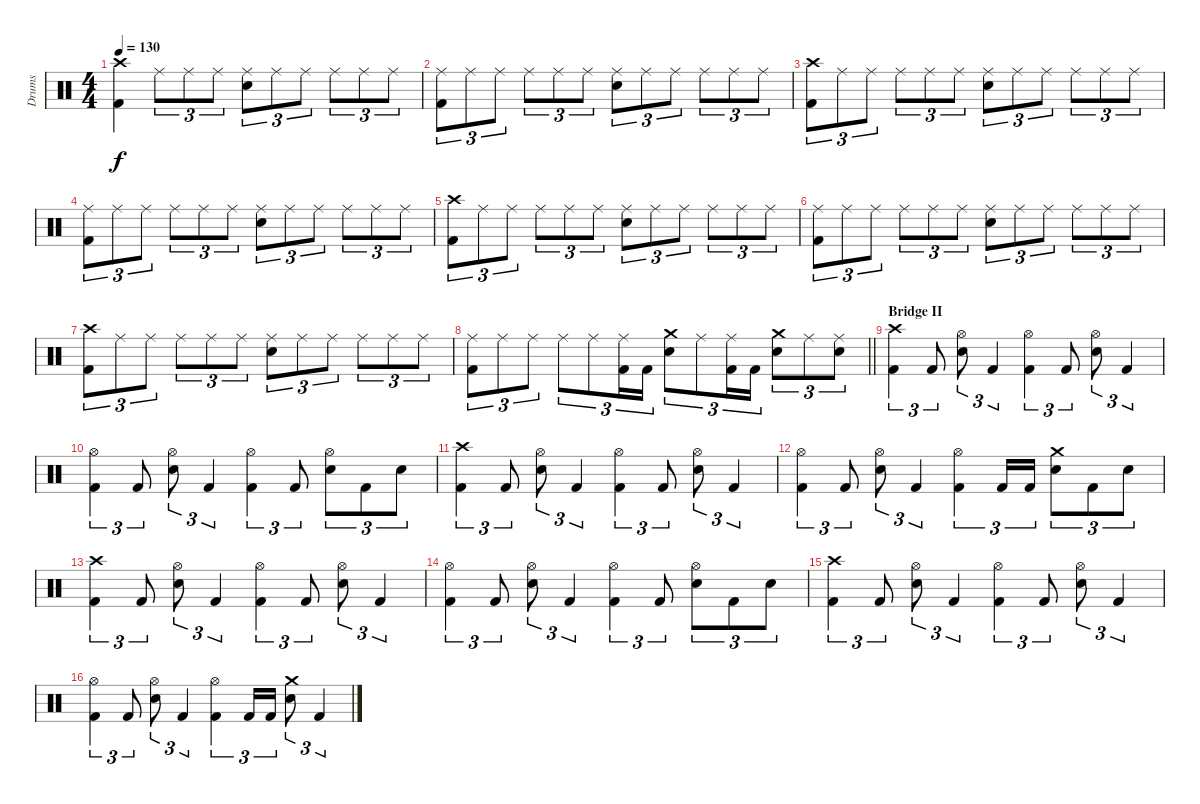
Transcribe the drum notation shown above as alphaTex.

\track ("Drums" "Drums") {instrument percussion}
\staff {score}
\articulation defaults
\ts (4 4)
\tempo 130
\clef neutral
\ks c
("Crash high (hit)" "Kick (hit) 2").4{dy f} "Ride (middle)".8{tu (3 2)} "Ride (middle)".8{tu (3 2)} "Ride (middle)".8{tu (3 2)} ("Ride (middle)" "Electric Snare (hit)").8{tu (3 2)} "Ride (middle)".8{tu (3 2)} "Ride (middle)".8{tu (3 2)} "Ride (middle)".8{tu (3 2)} "Ride (middle)".8{tu (3 2)} "Ride (middle)".8{tu (3 2)} |
("Ride (middle)" "Kick (hit) 2").8{tu (3 2)} "Ride (middle)".8{tu (3 2)} "Ride (middle)".8{tu (3 2)} "Ride (middle)".8{tu (3 2)} "Ride (middle)".8{tu (3 2)} "Ride (middle)".8{tu (3 2)} ("Ride (middle)" "Electric Snare (hit)").8{tu (3 2)} "Ride (middle)".8{tu (3 2)} "Ride (middle)".8{tu (3 2)} "Ride (middle)".8{tu (3 2)} "Ride (middle)".8{tu (3 2)} "Ride (middle)".8{tu (3 2)} |
("Crash high (hit)" "Kick (hit) 2").8{tu (3 2)} "Ride (middle)".8{tu (3 2)} "Ride (middle)".8{tu (3 2)} "Ride (middle)".8{tu (3 2)} "Ride (middle)".8{tu (3 2)} "Ride (middle)".8{tu (3 2)} ("Ride (middle)" "Electric Snare (hit)").8{tu (3 2)} "Ride (middle)".8{tu (3 2)} "Ride (middle)".8{tu (3 2)} "Ride (middle)".8{tu (3 2)} "Ride (middle)".8{tu (3 2)} "Ride (middle)".8{tu (3 2)} |
("Ride (middle)" "Kick (hit) 2").8{tu (3 2)} "Ride (middle)".8{tu (3 2)} "Ride (middle)".8{tu (3 2)} "Ride (middle)".8{tu (3 2)} "Ride (middle)".8{tu (3 2)} "Ride (middle)".8{tu (3 2)} ("Ride (middle)" "Electric Snare (hit)").8{tu (3 2)} "Ride (middle)".8{tu (3 2)} "Ride (middle)".8{tu (3 2)} "Ride (middle)".8{tu (3 2)} "Ride (middle)".8{tu (3 2)} "Ride (middle)".8{tu (3 2)} |
("Crash high (hit)" "Kick (hit) 2").8{tu (3 2)} "Ride (middle)".8{tu (3 2)} "Ride (middle)".8{tu (3 2)} "Ride (middle)".8{tu (3 2)} "Ride (middle)".8{tu (3 2)} "Ride (middle)".8{tu (3 2)} ("Ride (middle)" "Electric Snare (hit)").8{tu (3 2)} "Ride (middle)".8{tu (3 2)} "Ride (middle)".8{tu (3 2)} "Ride (middle)".8{tu (3 2)} "Ride (middle)".8{tu (3 2)} "Ride (middle)".8{tu (3 2)} |
("Ride (middle)" "Kick (hit) 2").8{tu (3 2)} "Ride (middle)".8{tu (3 2)} "Ride (middle)".8{tu (3 2)} "Ride (middle)".8{tu (3 2)} "Ride (middle)".8{tu (3 2)} "Ride (middle)".8{tu (3 2)} ("Ride (middle)" "Electric Snare (hit)").8{tu (3 2)} "Ride (middle)".8{tu (3 2)} "Ride (middle)".8{tu (3 2)} "Ride (middle)".8{tu (3 2)} "Ride (middle)".8{tu (3 2)} "Ride (middle)".8{tu (3 2)} |
("Crash high (hit)" "Kick (hit) 2").8{tu (3 2)} "Ride (middle)".8{tu (3 2)} "Ride (middle)".8{tu (3 2)} "Ride (middle)".8{tu (3 2)} "Ride (middle)".8{tu (3 2)} "Ride (middle)".8{tu (3 2)} ("Ride (middle)" "Electric Snare (hit)").8{tu (3 2)} "Ride (middle)".8{tu (3 2)} "Ride (middle)".8{tu (3 2)} "Ride (middle)".8{tu (3 2)} "Ride (middle)".8{tu (3 2)} "Ride (middle)".8{tu (3 2)} |
\barLineRight lightlight
("Ride (middle)" "Kick (hit) 2").8{tu (3 2)} "Ride (middle)".8{tu (3 2)} "Ride (middle)".8{tu (3 2)} "Ride (middle)".8{tu (3 2)} "Ride (middle)".8{tu (3 2)} ("Ride (middle)" "Kick (hit) 2").16{tu (3 2)} "Kick (hit) 2".16{tu (3 2)} ("Crash medium (hit)" "Electric Snare (hit)").8{tu (3 2)} "Ride (middle)".8{tu (3 2)} ("Ride (middle)" "Kick (hit) 2").16{tu (3 2)} "Kick (hit) 2".16{tu (3 2)} ("Crash medium (hit)" "Electric Snare (hit)").8{tu (3 2)} "Ride (middle)".8{tu (3 2)} ("Ride (middle)" "Electric Snare (hit)").8{tu (3 2)} |
\section ("" "Bridge II")
("Crash high (hit)" "Kick (hit) 2").4{tu (3 2)} "Kick (hit) 2".8{tu (3 2)} ("Hi-Hat (open)" "Electric Snare (hit)").8{tu (3 2)} "Kick (hit) 2".4{tu (3 2)} ("Hi-Hat (open)" "Kick (hit) 2").4{tu (3 2)} "Kick (hit) 2".8{tu (3 2)} ("Hi-Hat (open)" "Electric Snare (hit)").8{tu (3 2)} "Kick (hit) 2".4{tu (3 2)} |
("Hi-Hat (open)" "Kick (hit) 2").4{tu (3 2)} "Kick (hit) 2".8{tu (3 2)} ("Hi-Hat (open)" "Electric Snare (hit)").8{tu (3 2)} "Kick (hit) 2".4{tu (3 2)} ("Hi-Hat (open)" "Kick (hit) 2").4{tu (3 2)} "Kick (hit) 2".8{tu (3 2)} ("Hi-Hat (open)" "Electric Snare (hit)").8{tu (3 2)} "Kick (hit) 2".8{tu (3 2)} "Electric Snare (hit)".8{tu (3 2)} |
("Crash high (hit)" "Kick (hit) 2").4{tu (3 2)} "Kick (hit) 2".8{tu (3 2)} ("Hi-Hat (open)" "Electric Snare (hit)").8{tu (3 2)} "Kick (hit) 2".4{tu (3 2)} ("Hi-Hat (open)" "Kick (hit) 2").4{tu (3 2)} "Kick (hit) 2".8{tu (3 2)} ("Hi-Hat (open)" "Electric Snare (hit)").8{tu (3 2)} "Kick (hit) 2".4{tu (3 2)} |
("Hi-Hat (open)" "Kick (hit) 2").4{tu (3 2)} "Kick (hit) 2".8{tu (3 2)} ("Hi-Hat (open)" "Electric Snare (hit)").8{tu (3 2)} "Kick (hit) 2".4{tu (3 2)} ("Hi-Hat (open)" "Kick (hit) 2").4{tu (3 2)} "Kick (hit) 2".16{tu (3 2)} "Kick (hit) 2".16{tu (3 2)} ("Crash medium (hit)" "Electric Snare (hit)").8{tu (3 2)} "Kick (hit) 2".8{tu (3 2)} "Electric Snare (hit)".8{tu (3 2)} |
("Crash high (hit)" "Kick (hit) 2").4{tu (3 2)} "Kick (hit) 2".8{tu (3 2)} ("Hi-Hat (open)" "Electric Snare (hit)").8{tu (3 2)} "Kick (hit) 2".4{tu (3 2)} ("Hi-Hat (open)" "Kick (hit) 2").4{tu (3 2)} "Kick (hit) 2".8{tu (3 2)} ("Hi-Hat (open)" "Electric Snare (hit)").8{tu (3 2)} "Kick (hit) 2".4{tu (3 2)} |
("Hi-Hat (open)" "Kick (hit) 2").4{tu (3 2)} "Kick (hit) 2".8{tu (3 2)} ("Hi-Hat (open)" "Electric Snare (hit)").8{tu (3 2)} "Kick (hit) 2".4{tu (3 2)} ("Hi-Hat (open)" "Kick (hit) 2").4{tu (3 2)} "Kick (hit) 2".8{tu (3 2)} ("Hi-Hat (open)" "Electric Snare (hit)").8{tu (3 2)} "Kick (hit) 2".8{tu (3 2)} "Electric Snare (hit)".8{tu (3 2)} |
("Crash high (hit)" "Kick (hit) 2").4{tu (3 2)} "Kick (hit) 2".8{tu (3 2)} ("Hi-Hat (open)" "Electric Snare (hit)").8{tu (3 2)} "Kick (hit) 2".4{tu (3 2)} ("Hi-Hat (open)" "Kick (hit) 2").4{tu (3 2)} "Kick (hit) 2".8{tu (3 2)} ("Hi-Hat (open)" "Electric Snare (hit)").8{tu (3 2)} "Kick (hit) 2".4{tu (3 2)} |
("Hi-Hat (open)" "Kick (hit) 2").4{tu (3 2)} "Kick (hit) 2".8{tu (3 2)} ("Hi-Hat (open)" "Electric Snare (hit)").8{tu (3 2)} "Kick (hit) 2".4{tu (3 2)} ("Hi-Hat (open)" "Kick (hit) 2").4{tu (3 2)} "Kick (hit) 2".16{tu (3 2)} "Kick (hit) 2".16{tu (3 2)} ("Crash medium (hit)" "Electric Snare (hit)").8{tu (3 2)} "Kick (hit) 2".4{tu (3 2)}
